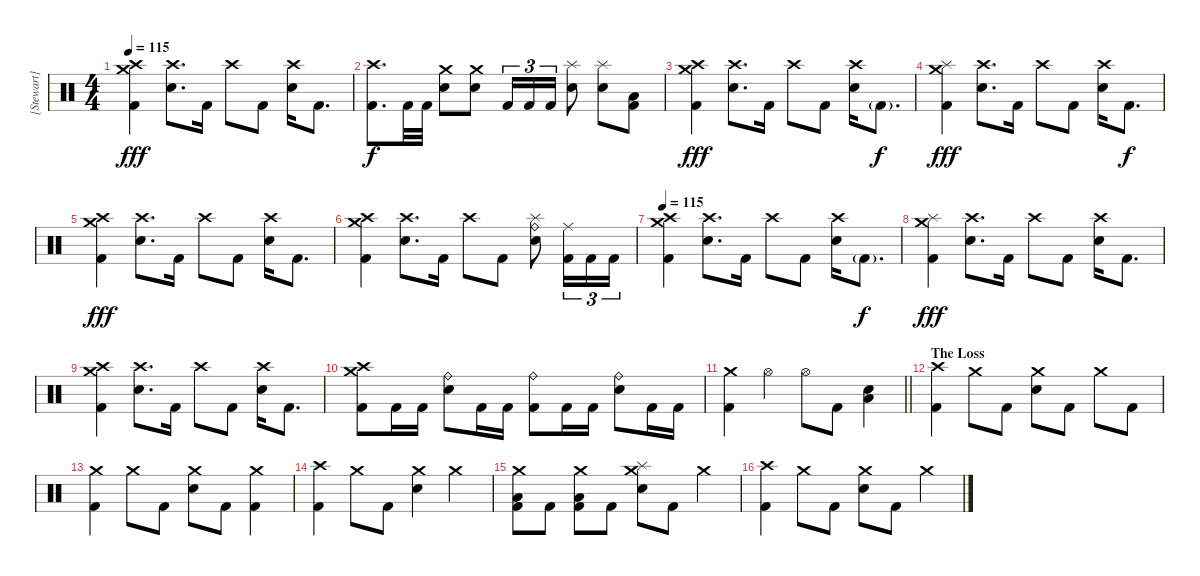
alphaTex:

\track ("[Stewart] Drums " "[Stewart] ") {instrument percussion}
\staff {score}
\articulation defaults
\ts (4 4)
\tempo 115
\clef neutral
\ks c
("Crash medium (hit)" "Crash high (hit)" "Kick (hit) 2").4{dy fff} ("Crash high (hit)" "Electric Snare (hit)").8{d} "Kick (hit) 2".16 "Crash high (hit)".8 "Kick (hit) 2".8 ("Crash high (hit)" "Electric Snare (hit)").16 "Kick (hit) 2".8{d} |
("Crash high (hit)" "Kick (hit) 2").8{d dy f} "Kick (hit) 2".32 "Kick (hit) 2".32 ("Crash medium (hit)" "Electric Snare (hit)").8 ("Crash medium (hit)" "Electric Snare (hit)").8 "Kick (hit) 2".16{tu (3 2)} "Kick (hit) 2".16{tu (3 2)} "Kick (hit) 2".16{tu (3 2)} ("Splash (hit)" "Electric Snare (hit)").8 ("Splash (hit)" "Electric Snare (hit)").8 ("Low Floor Tom (hit)" "Kick (hit) 2").8 |
("Crash medium (hit)" "Crash high (hit)" "Kick (hit) 2").4{dy fff} ("Crash high (hit)" "Electric Snare (hit)").8{d} "Kick (hit) 2".16 "Crash high (hit)".8 "Kick (hit) 2".8 ("Crash high (hit)" "Electric Snare (hit)").16 "Kick (hit) 2"{g}.8{d dy f} |
("Crash medium (hit)" "Splash (hit)" "Kick (hit) 2").4{dy fff} ("Crash high (hit)" "Electric Snare (hit)").8{d} "Kick (hit) 2".16 "Crash high (hit)".8 "Kick (hit) 2".8 ("Crash high (hit)" "Electric Snare (hit)").16 "Kick (hit) 2".8{d dy f} |
("Crash medium (hit)" "Crash high (hit)" "Kick (hit) 2").4{dy fff} ("Crash high (hit)" "Electric Snare (hit)").8{d} "Kick (hit) 2".16 "Crash high (hit)".8 "Kick (hit) 2".8 ("Crash high (hit)" "Electric Snare (hit)").16 "Kick (hit) 2".8{d} |
("Crash medium (hit)" "Crash high (hit)" "Kick (hit) 2").4 ("Crash high (hit)" "Electric Snare (hit)").8{d} "Kick (hit) 2".16 "Crash high (hit)".8 "Kick (hit) 2".8 ("Ride (bell)" "Splash (hit)" "Electric Snare (hit)").8 ("Ride (middle)" "Kick (hit) 2").16{tu (3 2)} "Kick (hit) 2".16{tu (3 2)} "Kick (hit) 2".16{tu (3 2)} |
\tempo 115
("Crash medium (hit)" "Crash high (hit)" "Kick (hit) 2").4 ("Crash high (hit)" "Electric Snare (hit)").8{d} "Kick (hit) 2".16 "Crash high (hit)".8 "Kick (hit) 2".8 ("Crash high (hit)" "Electric Snare (hit)").16 "Kick (hit) 2"{g}.8{d dy f} |
("Crash medium (hit)" "Splash (hit)" "Kick (hit) 2").4{dy fff} ("Crash high (hit)" "Electric Snare (hit)").8{d} "Kick (hit) 2".16 "Crash high (hit)".8 "Kick (hit) 2".8 ("Crash high (hit)" "Electric Snare (hit)").16 "Kick (hit) 2".8{d} |
("Crash medium (hit)" "Crash high (hit)" "Kick (hit) 2").4 ("Crash high (hit)" "Electric Snare (hit)").8{d} "Kick (hit) 2".16 "Crash high (hit)".8 "Kick (hit) 2".8 ("Crash high (hit)" "Electric Snare (hit)").16 "Kick (hit) 2".8{d} |
("Crash medium (hit)" "Crash high (hit)" "Kick (hit) 2").8 "Kick (hit) 2".16 "Kick (hit) 2".16 ("Ride (bell)" "Electric Snare (hit)").8 "Kick (hit) 2".16 "Kick (hit) 2".16 ("Ride (bell)" "Kick (hit) 2").8 "Kick (hit) 2".16 "Kick (hit) 2".16 ("Ride (bell)" "Electric Snare (hit)").8 "Kick (hit) 2".16 "Kick (hit) 2".16 |
\barLineRight lightlight
("Crash medium (hit)" "Kick (hit) 2").4 "Hi-Hat (open)".4 "Hi-Hat (open)".8 "Kick (hit) 2".8 ("Low Floor Tom (hit)" "Electric Snare (hit)").4 |
\section ("" "The Loss")
("Crash high (hit)" "Kick (hit) 2").4 "Crash medium (hit)".8 "Kick (hit) 2".8 ("Crash medium (hit)" "Electric Snare (hit)").8 "Kick (hit) 2".8 "Crash medium (hit)".8 "Kick (hit) 2".8 |
("Crash medium (hit)" "Kick (hit) 2").4 "Crash medium (hit)".8 "Kick (hit) 2".8 ("Crash medium (hit)" "Electric Snare (hit)").8 "Kick (hit) 2".8 ("Crash medium (hit)" "Kick (hit) 2").4 |
("Crash high (hit)" "Kick (hit) 2").4 "Crash medium (hit)".8 "Kick (hit) 2".8 ("Crash medium (hit)" "Electric Snare (hit)").4 "Crash medium (hit)".4 |
("Crash medium (hit)" "Low Floor Tom (hit)" "Kick (hit) 2").8 "Kick (hit) 2".8 ("Crash medium (hit)" "Low Floor Tom (hit)" "Kick (hit) 2").8 "Kick (hit) 2".8 ("Splash (hit)" "Crash medium (hit)" "Electric Snare (hit)").8 "Kick (hit) 2".8 "Crash medium (hit)".4 |
("Crash high (hit)" "Kick (hit) 2").4 "Crash medium (hit)".8 "Kick (hit) 2".8 ("Crash medium (hit)" "Electric Snare (hit)").8 "Kick (hit) 2".8 "Crash medium (hit)".4
